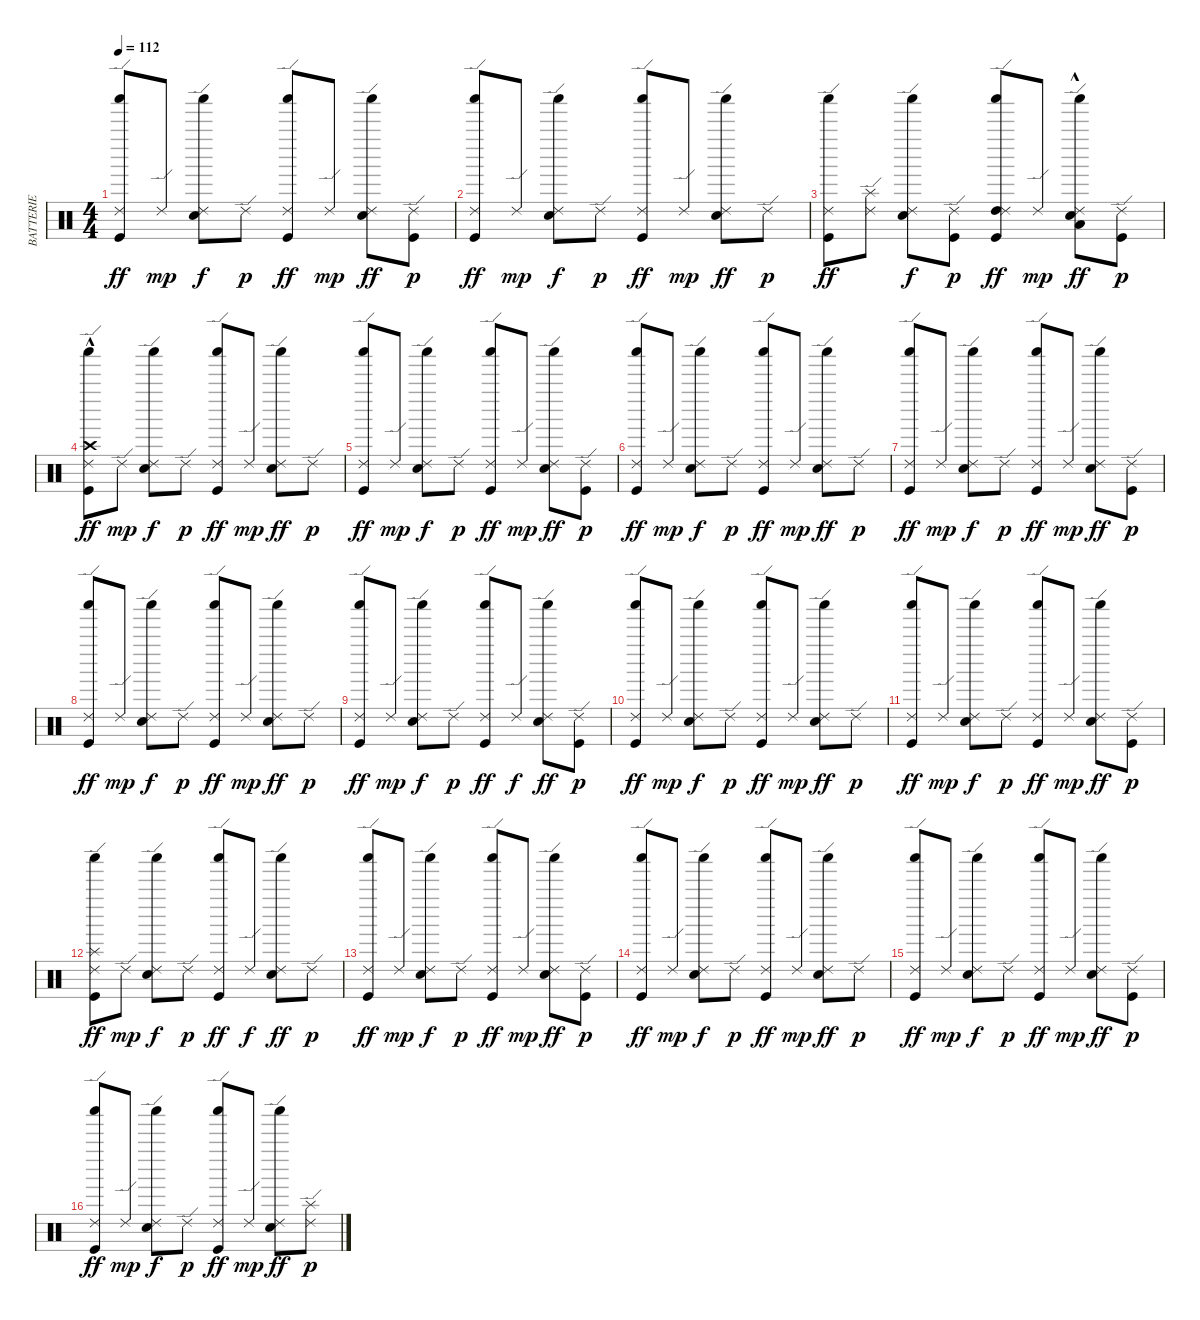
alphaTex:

\track ("BATTERIE" "BATTERIE") {instrument percussion}
\staff {score}
\articulation defaults
\ts (4 4)
\tempo 112
\clef neutral
\ks c
("Kick (hit)" "Shaker (hit)" "Ride (edge) 2").8{dy ff} "Ride (edge) 2".8{dy mp} ("Snare (hit) 2" "Ride (edge) 2" "Shaker (hit)").8{dy f} "Ride (edge) 2".8{dy p} ("Kick (hit)" "Shaker (hit)" "Ride (edge) 2").8{dy ff} "Ride (edge) 2".8{dy mp} ("Snare (hit) 2" "Ride (edge) 2" "Shaker (hit)").8{dy ff} ("Kick (hit)" "Ride (edge) 2").8{dy p} |
("Kick (hit)" "Shaker (hit)" "Ride (edge) 2").8{dy ff} "Ride (edge) 2".8{dy mp} ("Snare (hit) 2" "Ride (edge) 2" "Shaker (hit)").8{dy f} "Ride (edge) 2".8{dy p} ("Kick (hit)" "Shaker (hit)" "Ride (edge) 2").8{dy ff} "Ride (edge) 2".8{dy mp} ("Snare (hit) 2" "Ride (edge) 2" "Shaker (hit)").8{dy ff} "Ride (edge) 2".8{dy p} |
("Kick (hit)" "Shaker (hit)" "Ride (edge) 2").8{dy ff} ("Ride (edge) 2" "Splash (hit)").8 ("Snare (hit) 2" "Ride (edge) 2" "Shaker (hit)").8{dy f} ("Kick (hit)" "Ride (edge) 2").8{dy p} ("Kick (hit)" "High Tom (hit)" "Shaker (hit)" "Ride (edge) 2").8{dy ff} "Ride (edge) 2".8{dy mp} ("Snare (hit) 2" "Ride (edge) 2" "Shaker (hit)" "Low Tom (hit)"{hac}).8{dy ff} ("Kick (hit)" "Ride (edge) 2").8{dy p} |
("Kick (hit)" "Shaker (hit)" "Crash high (hit)"{hac} "Ride (edge) 2").8{dy ff} "Ride (edge) 2".8{dy mp} ("Snare (hit) 2" "Ride (edge) 2" "Shaker (hit)").8{dy f} "Ride (edge) 2".8{dy p} ("Kick (hit)" "Shaker (hit)" "Ride (edge) 2").8{dy ff} "Ride (edge) 2".8{dy mp} ("Snare (hit) 2" "Ride (edge) 2" "Shaker (hit)").8{dy ff} "Ride (edge) 2".8{dy p} |
("Kick (hit)" "Shaker (hit)" "Ride (edge) 2").8{dy ff} "Ride (edge) 2".8{dy mp} ("Snare (hit) 2" "Ride (edge) 2" "Shaker (hit)").8{dy f} "Ride (edge) 2".8{dy p} ("Kick (hit)" "Shaker (hit)" "Ride (edge) 2").8{dy ff} "Ride (edge) 2".8{dy mp} ("Snare (hit) 2" "Ride (edge) 2" "Shaker (hit)").8{dy ff} ("Kick (hit)" "Ride (edge) 2").8{dy p} |
("Kick (hit)" "Shaker (hit)" "Ride (edge) 2").8{dy ff} "Ride (edge) 2".8{dy mp} ("Snare (hit) 2" "Ride (edge) 2" "Shaker (hit)").8{dy f} "Ride (edge) 2".8{dy p} ("Kick (hit)" "Shaker (hit)" "Ride (edge) 2").8{dy ff} "Ride (edge) 2".8{dy mp} ("Snare (hit) 2" "Ride (edge) 2" "Shaker (hit)").8{dy ff} "Ride (edge) 2".8{dy p} |
("Kick (hit)" "Shaker (hit)" "Ride (edge) 2").8{dy ff} "Ride (edge) 2".8{dy mp} ("Snare (hit) 2" "Ride (edge) 2" "Shaker (hit)").8{dy f} "Ride (edge) 2".8{dy p} ("Kick (hit)" "Shaker (hit)" "Ride (edge) 2").8{dy ff} "Ride (edge) 2".8{dy mp} ("Snare (hit) 2" "Ride (edge) 2" "Shaker (hit)").8{dy ff} ("Kick (hit)" "Ride (edge) 2").8{dy p} |
("Kick (hit)" "Shaker (hit)" "Ride (edge) 2").8{dy ff} "Ride (edge) 2".8{dy mp} ("Snare (hit) 2" "Ride (edge) 2" "Shaker (hit)").8{dy f} "Ride (edge) 2".8{dy p} ("Kick (hit)" "Shaker (hit)" "Ride (edge) 2").8{dy ff} "Ride (edge) 2".8{dy mp} ("Snare (hit) 2" "Ride (edge) 2" "Shaker (hit)").8{dy ff} "Ride (edge) 2".8{dy p} |
("Kick (hit)" "Shaker (hit)" "Ride (edge) 2").8{dy ff} "Ride (edge) 2".8{dy mp} ("Snare (hit) 2" "Ride (edge) 2" "Shaker (hit)").8{dy f} "Ride (edge) 2".8{dy p} ("Kick (hit)" "Shaker (hit)" "Ride (edge) 2").8{dy ff} "Ride (edge) 2".8{dy f} ("Snare (hit) 2" "Ride (edge) 2" "Shaker (hit)").8{dy ff} ("Kick (hit)" "Ride (edge) 2").8{dy p} |
("Kick (hit)" "Shaker (hit)" "Ride (edge) 2").8{dy ff} "Ride (edge) 2".8{dy mp} ("Snare (hit) 2" "Ride (edge) 2" "Shaker (hit)").8{dy f} "Ride (edge) 2".8{dy p} ("Kick (hit)" "Shaker (hit)" "Ride (edge) 2").8{dy ff} "Ride (edge) 2".8{dy mp} ("Snare (hit) 2" "Ride (edge) 2" "Shaker (hit)").8{dy ff} "Ride (edge) 2".8{dy p} |
("Kick (hit)" "Shaker (hit)" "Ride (edge) 2").8{dy ff} "Ride (edge) 2".8{dy mp} ("Snare (hit) 2" "Ride (edge) 2" "Shaker (hit)").8{dy f} "Ride (edge) 2".8{dy p} ("Kick (hit)" "Shaker (hit)" "Ride (edge) 2").8{dy ff} "Ride (edge) 2".8{dy mp} ("Snare (hit) 2" "Ride (edge) 2" "Shaker (hit)").8{dy ff} ("Kick (hit)" "Ride (edge) 2").8{dy p} |
("Splash (hit)" "Kick (hit)" "Shaker (hit)" "Ride (edge) 2").8{dy ff} "Ride (edge) 2".8{dy mp} ("Snare (hit) 2" "Ride (edge) 2" "Shaker (hit)").8{dy f} "Ride (edge) 2".8{dy p} ("Kick (hit)" "Shaker (hit)" "Ride (edge) 2").8{dy ff} "Ride (edge) 2".8{dy f} ("Snare (hit) 2" "Ride (edge) 2" "Shaker (hit)").8{dy ff} "Ride (edge) 2".8{dy p} |
("Kick (hit)" "Shaker (hit)" "Ride (edge) 2").8{dy ff} "Ride (edge) 2".8{dy mp} ("Snare (hit) 2" "Ride (edge) 2" "Shaker (hit)").8{dy f} "Ride (edge) 2".8{dy p} ("Kick (hit)" "Shaker (hit)" "Ride (edge) 2").8{dy ff} "Ride (edge) 2".8{dy mp} ("Snare (hit) 2" "Ride (edge) 2" "Shaker (hit)").8{dy ff} ("Kick (hit)" "Ride (edge) 2").8{dy p} |
("Kick (hit)" "Shaker (hit)" "Ride (edge) 2").8{dy ff} "Ride (edge) 2".8{dy mp} ("Snare (hit) 2" "Ride (edge) 2" "Shaker (hit)").8{dy f} "Ride (edge) 2".8{dy p} ("Kick (hit)" "Shaker (hit)" "Ride (edge) 2").8{dy ff} "Ride (edge) 2".8{dy mp} ("Snare (hit) 2" "Ride (edge) 2" "Shaker (hit)").8{dy ff} "Ride (edge) 2".8{dy p} |
("Kick (hit)" "Shaker (hit)" "Ride (edge) 2").8{dy ff} "Ride (edge) 2".8{dy mp} ("Snare (hit) 2" "Ride (edge) 2" "Shaker (hit)").8{dy f} "Ride (edge) 2".8{dy p} ("Kick (hit)" "Shaker (hit)" "Ride (edge) 2").8{dy ff} "Ride (edge) 2".8{dy mp} ("Snare (hit) 2" "Ride (edge) 2" "Shaker (hit)").8{dy ff} ("Kick (hit)" "Ride (edge) 2").8{dy p} |
("Kick (hit)" "Shaker (hit)" "Ride (edge) 2").8{dy ff} "Ride (edge) 2".8{dy mp} ("Snare (hit) 2" "Ride (edge) 2" "Shaker (hit)").8{dy f} "Ride (edge) 2".8{dy p} ("Kick (hit)" "Shaker (hit)" "Ride (edge) 2").8{dy ff} "Ride (edge) 2".8{dy mp} ("Snare (hit) 2" "Ride (edge) 2" "Shaker (hit)").8{dy ff} ("Splash (hit)" "Ride (edge) 2").8{dy p}
